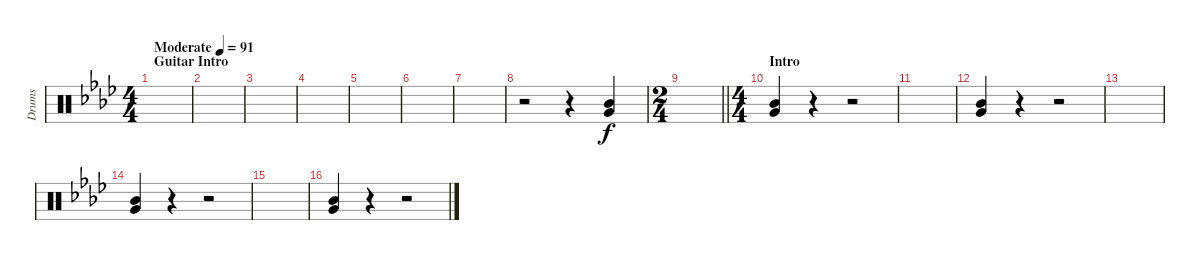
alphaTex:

\track ("Drums" "Drums") {instrument percussion}
\staff {score}
\articulation defaults
\ts (4 4)
\section ("" "Guitar Intro")
\tempo (91 "Moderate")
\clef neutral
\ks fminor
|
|
|
|
|
|
|
r.2 r.4 ("Mid Tom (hit)" "Very Low Tom (hit)").4 |
\ts (2 4)
\barLineRight lightlight
|
\ts (4 4)
\section ("" "Intro")
("Mid Tom (hit)" "Very Low Tom (hit)").4 r.4 r.2 |
|
("Mid Tom (hit)" "Very Low Tom (hit)").4 r.4 r.2 |
|
("Mid Tom (hit)" "Very Low Tom (hit)").4 r.4 r.2 |
|
("Mid Tom (hit)" "Very Low Tom (hit)").4 r.4 r.2
